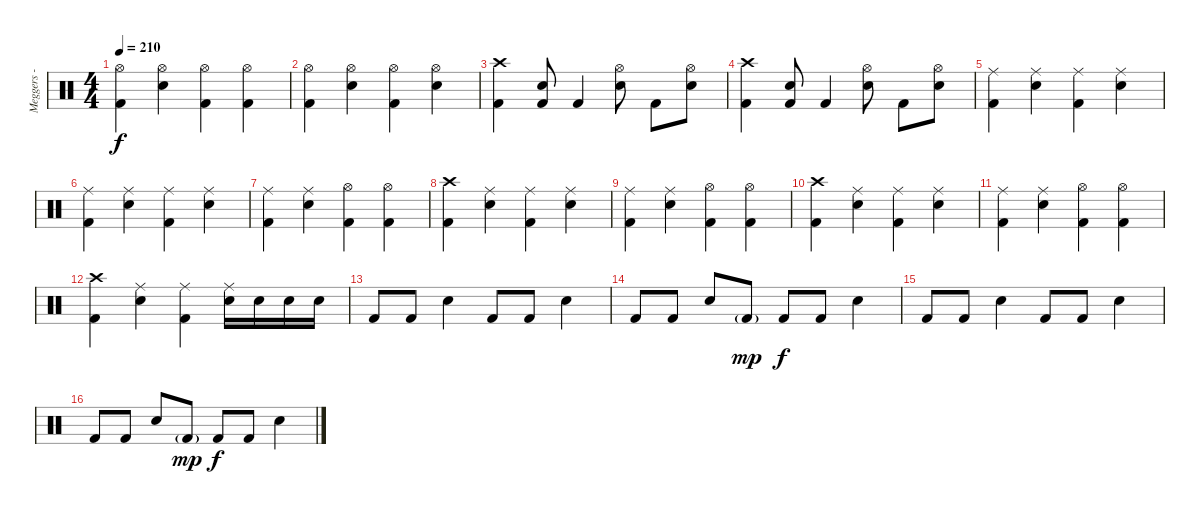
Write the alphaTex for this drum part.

\track ("Meggers - Drums" "Meggers - ") {instrument percussion}
\staff {score}
\articulation defaults
\ts (4 4)
\tempo 210
\clef neutral
\ks c
("Hi-Hat (open)" "Kick (hit) 2").4{dy f} ("Hi-Hat (open)" "Electric Snare (hit)").4 ("Hi-Hat (open)" "Kick (hit) 2").4 ("Hi-Hat (open)" "Kick (hit) 2").4 |
("Hi-Hat (open)" "Kick (hit) 2").4 ("Hi-Hat (open)" "Electric Snare (hit)").4 ("Hi-Hat (open)" "Kick (hit) 2").4 ("Hi-Hat (open)" "Electric Snare (hit)").4 |
("Crash high (hit)" "Kick (hit) 2").4 ("Electric Snare (hit)" "Kick (hit) 2").8 "Kick (hit) 2".4 ("Hi-Hat (open)" "Electric Snare (hit)").8 "Kick (hit) 2".8 ("Hi-Hat (open)" "Electric Snare (hit)").8 |
("Crash high (hit)" "Kick (hit) 2").4 ("Electric Snare (hit)" "Kick (hit) 2").8 "Kick (hit) 2".4 ("Hi-Hat (open)" "Electric Snare (hit)").8 "Kick (hit) 2".8 ("Hi-Hat (open)" "Electric Snare (hit)").8 |
("Ride (middle)" "Kick (hit) 2").4 ("Ride (middle)" "Electric Snare (hit)").4 ("Ride (middle)" "Kick (hit) 2").4 ("Ride (middle)" "Electric Snare (hit)").4 |
("Ride (middle)" "Kick (hit) 2").4 ("Ride (middle)" "Electric Snare (hit)").4 ("Ride (middle)" "Kick (hit) 2").4 ("Ride (middle)" "Electric Snare (hit)").4 |
("Ride (middle)" "Kick (hit) 2").4 ("Ride (middle)" "Electric Snare (hit)").4 ("Hi-Hat (open)" "Kick (hit) 2").4 ("Hi-Hat (open)" "Kick (hit) 2").4 |
("Crash high (hit)" "Kick (hit) 2").4 ("Ride (middle)" "Electric Snare (hit)").4 ("Ride (middle)" "Kick (hit) 2").4 ("Ride (middle)" "Electric Snare (hit)").4 |
("Ride (middle)" "Kick (hit) 2").4 ("Ride (middle)" "Electric Snare (hit)").4 ("Hi-Hat (open)" "Kick (hit) 2").4 ("Hi-Hat (open)" "Kick (hit) 2").4 |
("Crash high (hit)" "Kick (hit) 2").4 ("Ride (middle)" "Electric Snare (hit)").4 ("Ride (middle)" "Kick (hit) 2").4 ("Ride (middle)" "Electric Snare (hit)").4 |
("Ride (middle)" "Kick (hit) 2").4 ("Ride (middle)" "Electric Snare (hit)").4 ("Hi-Hat (open)" "Kick (hit) 2").4 ("Hi-Hat (open)" "Kick (hit) 2").4 |
("Crash high (hit)" "Kick (hit) 2").4 ("Ride (middle)" "Electric Snare (hit)").4 ("Ride (middle)" "Kick (hit) 2").4 ("Ride (middle)" "Electric Snare (hit)").16 "Electric Snare (hit)".16 "Electric Snare (hit)".16 "Electric Snare (hit)".16 |
"Kick (hit) 2".8 "Kick (hit) 2".8 "Electric Snare (hit)".4 "Kick (hit) 2".8 "Kick (hit) 2".8 "Electric Snare (hit)".4 |
"Kick (hit) 2".8 "Kick (hit) 2".8 "Electric Snare (hit)".8 "Kick (hit) 2"{g}.8{dy mp} "Kick (hit) 2".8{dy f} "Kick (hit) 2".8 "Electric Snare (hit)".4 |
"Kick (hit) 2".8 "Kick (hit) 2".8 "Electric Snare (hit)".4 "Kick (hit) 2".8 "Kick (hit) 2".8 "Electric Snare (hit)".4 |
"Kick (hit) 2".8 "Kick (hit) 2".8 "Electric Snare (hit)".8 "Kick (hit) 2"{g}.8{dy mp} "Kick (hit) 2".8{dy f} "Kick (hit) 2".8 "Electric Snare (hit)".4
